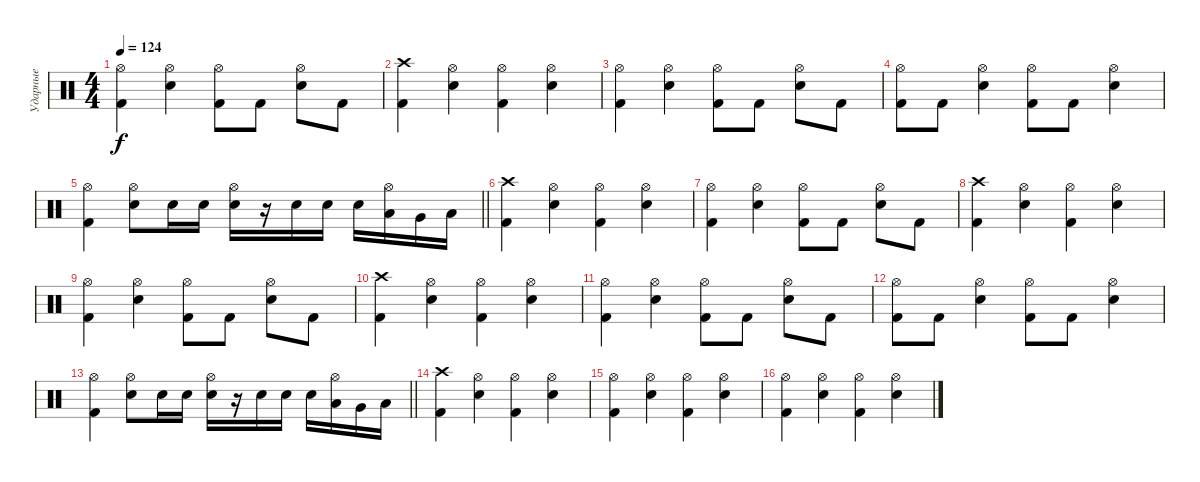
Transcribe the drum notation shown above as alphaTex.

\track ("Ударные" "Ударные") {instrument percussion}
\staff {score}
\articulation defaults
\ts (4 4)
\tempo 124
\clef neutral
\ks c
("Kick (hit) 2" "Hi-Hat (open)").4{dy f} ("Electric Snare (hit)" "Hi-Hat (open)").4 ("Kick (hit) 2" "Hi-Hat (open)").8 "Kick (hit) 2".8 ("Electric Snare (hit)" "Hi-Hat (open)").8 "Kick (hit) 2".8 |
("Crash high (hit)" "Kick (hit) 2").4 ("Electric Snare (hit)" "Hi-Hat (open)").4 ("Kick (hit) 2" "Hi-Hat (open)").4 ("Electric Snare (hit)" "Hi-Hat (open)").4 |
("Kick (hit) 2" "Hi-Hat (open)").4 ("Electric Snare (hit)" "Hi-Hat (open)").4 ("Kick (hit) 2" "Hi-Hat (open)").8 "Kick (hit) 2".8 ("Electric Snare (hit)" "Hi-Hat (open)").8 "Kick (hit) 2".8 |
("Kick (hit) 2" "Hi-Hat (open)").8 "Kick (hit) 2".8 ("Electric Snare (hit)" "Hi-Hat (open)").4 ("Kick (hit) 2" "Hi-Hat (open)").8 "Kick (hit) 2".8 ("Electric Snare (hit)" "Hi-Hat (open)").4 |
\barLineRight lightlight
("Kick (hit) 2" "Hi-Hat (open)").4 ("Electric Snare (hit)" "Hi-Hat (open)").8 "Electric Snare (hit)".16 "Electric Snare (hit)".16 ("Electric Snare (hit)" "Hi-Hat (open)").16 r.16 "Electric Snare (hit)".16 "Electric Snare (hit)".16 "Electric Snare (hit)".16 ("Low Floor Tom (hit)" "Hi-Hat (open)").16 "Very Low Tom (hit)".16 "Low Floor Tom (hit)".16 |
("Crash high (hit)" "Kick (hit) 2").4 ("Electric Snare (hit)" "Hi-Hat (open)").4 ("Kick (hit) 2" "Hi-Hat (open)").4 ("Electric Snare (hit)" "Hi-Hat (open)").4 |
("Kick (hit) 2" "Hi-Hat (open)").4 ("Electric Snare (hit)" "Hi-Hat (open)").4 ("Kick (hit) 2" "Hi-Hat (open)").8 "Kick (hit) 2".8 ("Electric Snare (hit)" "Hi-Hat (open)").8 "Kick (hit) 2".8 |
("Crash high (hit)" "Kick (hit) 2").4 ("Electric Snare (hit)" "Hi-Hat (open)").4 ("Kick (hit) 2" "Hi-Hat (open)").4 ("Electric Snare (hit)" "Hi-Hat (open)").4 |
("Kick (hit) 2" "Hi-Hat (open)").4 ("Electric Snare (hit)" "Hi-Hat (open)").4 ("Kick (hit) 2" "Hi-Hat (open)").8 "Kick (hit) 2".8 ("Electric Snare (hit)" "Hi-Hat (open)").8 "Kick (hit) 2".8 |
("Crash high (hit)" "Kick (hit) 2").4 ("Electric Snare (hit)" "Hi-Hat (open)").4 ("Kick (hit) 2" "Hi-Hat (open)").4 ("Electric Snare (hit)" "Hi-Hat (open)").4 |
("Kick (hit) 2" "Hi-Hat (open)").4 ("Electric Snare (hit)" "Hi-Hat (open)").4 ("Kick (hit) 2" "Hi-Hat (open)").8 "Kick (hit) 2".8 ("Electric Snare (hit)" "Hi-Hat (open)").8 "Kick (hit) 2".8 |
("Kick (hit) 2" "Hi-Hat (open)").8 "Kick (hit) 2".8 ("Electric Snare (hit)" "Hi-Hat (open)").4 ("Kick (hit) 2" "Hi-Hat (open)").8 "Kick (hit) 2".8 ("Electric Snare (hit)" "Hi-Hat (open)").4 |
\barLineRight lightlight
("Kick (hit) 2" "Hi-Hat (open)").4 ("Electric Snare (hit)" "Hi-Hat (open)").8 "Electric Snare (hit)".16 "Electric Snare (hit)".16 ("Electric Snare (hit)" "Hi-Hat (open)").16 r.16 "Electric Snare (hit)".16 "Electric Snare (hit)".16 "Electric Snare (hit)".16 ("Low Floor Tom (hit)" "Hi-Hat (open)").16 "Very Low Tom (hit)".16 "Low Floor Tom (hit)".16 |
("Crash high (hit)" "Kick (hit) 2").4 ("Electric Snare (hit)" "Hi-Hat (open)").4 ("Kick (hit) 2" "Hi-Hat (open)").4 ("Electric Snare (hit)" "Hi-Hat (open)").4 |
("Kick (hit) 2" "Hi-Hat (open)").4 ("Electric Snare (hit)" "Hi-Hat (open)").4 ("Kick (hit) 2" "Hi-Hat (open)").4 ("Electric Snare (hit)" "Hi-Hat (open)").4 |
("Kick (hit) 2" "Hi-Hat (open)").4 ("Electric Snare (hit)" "Hi-Hat (open)").4 ("Kick (hit) 2" "Hi-Hat (open)").4 ("Electric Snare (hit)" "Hi-Hat (open)").4
